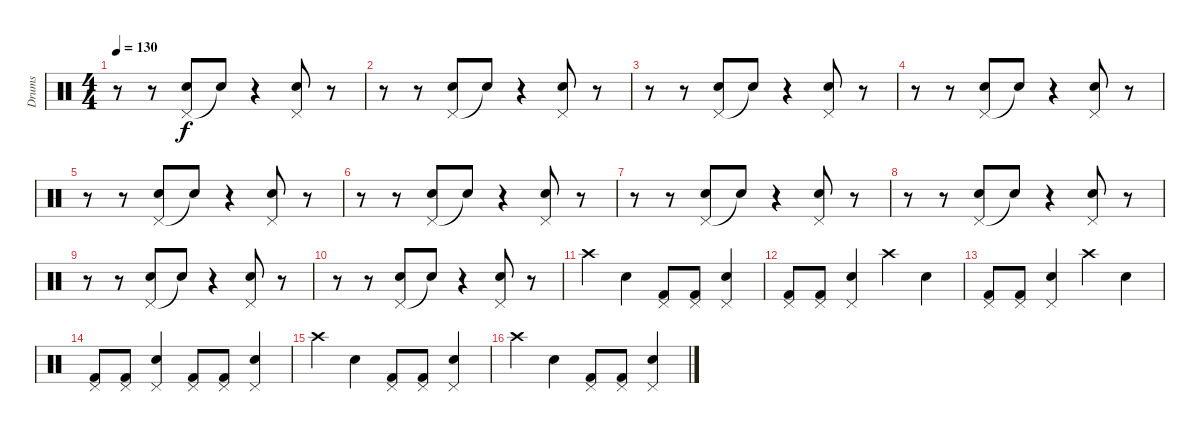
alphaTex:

\track ("Drums" "Drums") {instrument percussion}
\staff {score}
\articulation defaults
\ts (4 4)
\tempo 130
\clef neutral
\ks c
r.8{dy f} r.8 ("Pedal Hi-Hat (hit)" "Hand Clap (hit)").8 "Snare (hit)"{t}.8 r.4 ("Pedal Hi-Hat (hit)" "Hand Clap (hit)").8 r.8 |
r.8 r.8 ("Pedal Hi-Hat (hit)" "Hand Clap (hit)").8 "Snare (hit)"{t}.8 r.4 ("Pedal Hi-Hat (hit)" "Hand Clap (hit)").8 r.8 |
r.8 r.8 ("Pedal Hi-Hat (hit)" "Hand Clap (hit)").8 "Snare (hit)"{t}.8 r.4 ("Pedal Hi-Hat (hit)" "Hand Clap (hit)").8 r.8 |
r.8 r.8 ("Pedal Hi-Hat (hit)" "Hand Clap (hit)").8 "Snare (hit)"{t}.8 r.4 ("Pedal Hi-Hat (hit)" "Hand Clap (hit)").8 r.8 |
r.8 r.8 ("Pedal Hi-Hat (hit)" "Hand Clap (hit)").8 "Snare (hit)"{t}.8 r.4 ("Pedal Hi-Hat (hit)" "Hand Clap (hit)").8 r.8 |
r.8 r.8 ("Pedal Hi-Hat (hit)" "Hand Clap (hit)").8 "Snare (hit)"{t}.8 r.4 ("Pedal Hi-Hat (hit)" "Hand Clap (hit)").8 r.8 |
r.8 r.8 ("Pedal Hi-Hat (hit)" "Hand Clap (hit)").8 "Snare (hit)"{t}.8 r.4 ("Pedal Hi-Hat (hit)" "Hand Clap (hit)").8 r.8 |
r.8 r.8 ("Pedal Hi-Hat (hit)" "Hand Clap (hit)").8 "Snare (hit)"{t}.8 r.4 ("Pedal Hi-Hat (hit)" "Hand Clap (hit)").8 r.8 |
r.8 r.8 ("Pedal Hi-Hat (hit)" "Hand Clap (hit)").8 "Snare (hit)"{t}.8 r.4 ("Pedal Hi-Hat (hit)" "Hand Clap (hit)").8 r.8 |
r.8 r.8 ("Pedal Hi-Hat (hit)" "Hand Clap (hit)").8 "Snare (hit)"{t}.8 r.4 ("Pedal Hi-Hat (hit)" "Hand Clap (hit)").8 r.8 |
"Crash high (hit)".4 "Snare (hit) 2".4 ("Pedal Hi-Hat (hit)" "Kick (hit) 2").8 ("Pedal Hi-Hat (hit)" "Kick (hit) 2").8 ("Pedal Hi-Hat (hit)" "Snare (hit) 2").4 |
("Pedal Hi-Hat (hit)" "Kick (hit) 2").8 ("Pedal Hi-Hat (hit)" "Kick (hit) 2").8 ("Pedal Hi-Hat (hit)" "Snare (hit) 2").4 "Crash high (hit)".4 "Snare (hit) 2".4 |
("Pedal Hi-Hat (hit)" "Kick (hit) 2").8 ("Pedal Hi-Hat (hit)" "Kick (hit) 2").8 ("Pedal Hi-Hat (hit)" "Snare (hit) 2").4 "Crash high (hit)".4 "Snare (hit) 2".4 |
("Pedal Hi-Hat (hit)" "Kick (hit) 2").8 ("Pedal Hi-Hat (hit)" "Kick (hit) 2").8 ("Pedal Hi-Hat (hit)" "Snare (hit) 2").4 ("Pedal Hi-Hat (hit)" "Kick (hit) 2").8 ("Pedal Hi-Hat (hit)" "Kick (hit) 2").8 ("Pedal Hi-Hat (hit)" "Snare (hit) 2").4 |
"Crash high (hit)".4 "Snare (hit) 2".4 ("Pedal Hi-Hat (hit)" "Kick (hit) 2").8 ("Pedal Hi-Hat (hit)" "Kick (hit) 2").8 ("Pedal Hi-Hat (hit)" "Snare (hit) 2").4 |
"Crash high (hit)".4 "Snare (hit) 2".4 ("Pedal Hi-Hat (hit)" "Kick (hit) 2").8 ("Pedal Hi-Hat (hit)" "Kick (hit) 2").8 ("Pedal Hi-Hat (hit)" "Snare (hit) 2").4
